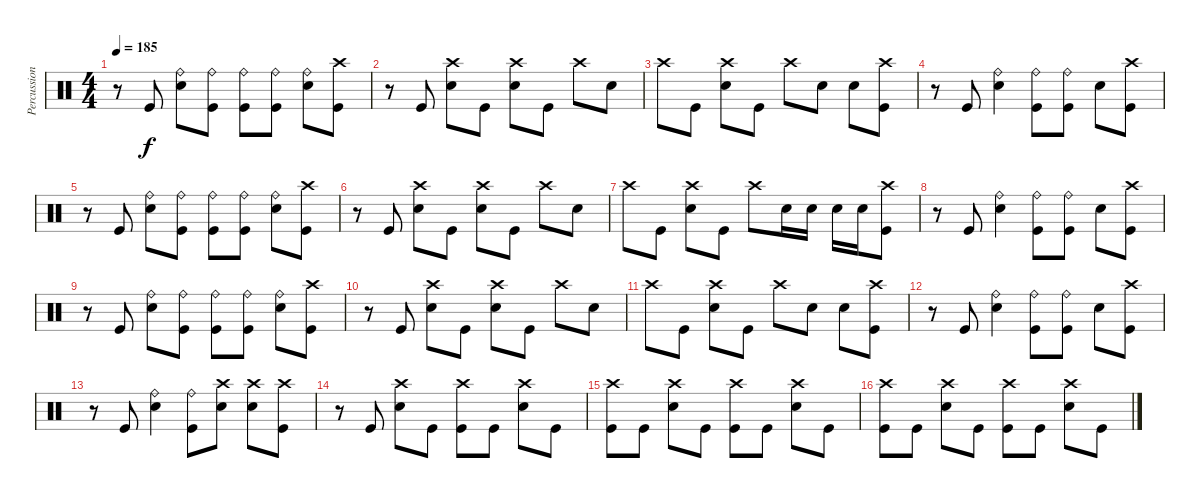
\track ("Percussion" "Percussion") {instrument percussion}
\staff {score}
\articulation defaults
\ts (4 4)
\tempo 185
\clef neutral
\ks c
r.8{dy f} "Kick (hit)".8 ("Ride (bell)" "Snare (hit) 2").8 ("Ride (bell)" "Kick (hit)").8 ("Ride (bell)" "Kick (hit)").8 ("Ride (bell)" "Kick (hit)").8 ("Ride (bell)" "Snare (hit) 2").8 ("Crash high (hit)" "Kick (hit)").8 |
r.8 "Kick (hit)".8 ("Crash high (hit)" "Snare (hit) 2").8 "Kick (hit)".8 ("Crash high (hit)" "Snare (hit) 2").8 "Kick (hit)".8 "Crash high (hit)".8 "Snare (hit) 2".8 |
"Crash high (hit)".8 "Kick (hit)".8 ("Crash high (hit)" "Snare (hit) 2").8 "Kick (hit)".8 "Crash high (hit)".8 "Snare (hit) 2".8 "Snare (hit) 2".8 ("Crash high (hit)" "Kick (hit)").8 |
r.8 "Kick (hit)".8 ("Ride (bell)" "Snare (hit) 2").4 ("Ride (bell)" "Kick (hit)").8 ("Ride (bell)" "Kick (hit)").8 "Snare (hit) 2".8 ("Crash high (hit)" "Kick (hit)").8 |
r.8 "Kick (hit)".8 ("Ride (bell)" "Snare (hit) 2").8 ("Ride (bell)" "Kick (hit)").8 ("Ride (bell)" "Kick (hit)").8 ("Ride (bell)" "Kick (hit)").8 ("Ride (bell)" "Snare (hit) 2").8 ("Crash high (hit)" "Kick (hit)").8 |
r.8 "Kick (hit)".8 ("Crash high (hit)" "Snare (hit) 2").8 "Kick (hit)".8 ("Crash high (hit)" "Snare (hit) 2").8 "Kick (hit)".8 "Crash high (hit)".8 "Snare (hit) 2".8 |
"Crash high (hit)".8 "Kick (hit)".8 ("Crash high (hit)" "Snare (hit) 2").8 "Kick (hit)".8 "Crash high (hit)".8 "Snare (hit) 2".16 "Snare (hit) 2".16 "Snare (hit) 2".16 "Snare (hit) 2".16 ("Crash high (hit)" "Kick (hit)").8 |
r.8 "Kick (hit)".8 ("Ride (bell)" "Snare (hit) 2").4 ("Ride (bell)" "Kick (hit)").8 ("Ride (bell)" "Kick (hit)").8 "Snare (hit) 2".8 ("Crash high (hit)" "Kick (hit)").8 |
r.8 "Kick (hit)".8 ("Ride (bell)" "Snare (hit) 2").8 ("Ride (bell)" "Kick (hit)").8 ("Ride (bell)" "Kick (hit)").8 ("Ride (bell)" "Kick (hit)").8 ("Ride (bell)" "Snare (hit) 2").8 ("Crash high (hit)" "Kick (hit)").8 |
r.8 "Kick (hit)".8 ("Crash high (hit)" "Snare (hit) 2").8 "Kick (hit)".8 ("Crash high (hit)" "Snare (hit) 2").8 "Kick (hit)".8 "Crash high (hit)".8 "Snare (hit) 2".8 |
"Crash high (hit)".8 "Kick (hit)".8 ("Crash high (hit)" "Snare (hit) 2").8 "Kick (hit)".8 "Crash high (hit)".8 "Snare (hit) 2".8 "Snare (hit) 2".8 ("Crash high (hit)" "Kick (hit)").8 |
r.8 "Kick (hit)".8 ("Ride (bell)" "Snare (hit) 2").4 ("Ride (bell)" "Kick (hit)").8 ("Ride (bell)" "Kick (hit)").8 "Snare (hit) 2".8 ("Crash high (hit)" "Kick (hit)").8 |
r.8 "Kick (hit)".8 ("Ride (bell)" "Snare (hit) 2").4 ("Ride (bell)" "Kick (hit)").8 ("Crash high (hit)" "Snare (hit) 2").8 ("Crash high (hit)" "Snare (hit) 2").8 ("Crash high (hit)" "Kick (hit)").8 |
r.8 "Kick (hit)".8 ("Crash high (hit)" "Snare (hit) 2").8 "Kick (hit)".8 ("Crash high (hit)" "Kick (hit)").8 "Kick (hit)".8 ("Crash high (hit)" "Snare (hit) 2").8 "Kick (hit)".8 |
("Crash high (hit)" "Kick (hit)").8 "Kick (hit)".8 ("Crash high (hit)" "Snare (hit) 2").8 "Kick (hit)".8 ("Crash high (hit)" "Kick (hit)").8 "Kick (hit)".8 ("Crash high (hit)" "Snare (hit) 2").8 "Kick (hit)".8 |
("Crash high (hit)" "Kick (hit)").8 "Kick (hit)".8 ("Crash high (hit)" "Snare (hit) 2").8 "Kick (hit)".8 ("Crash high (hit)" "Kick (hit)").8 "Kick (hit)".8 ("Crash high (hit)" "Snare (hit) 2").8 "Kick (hit)".8
